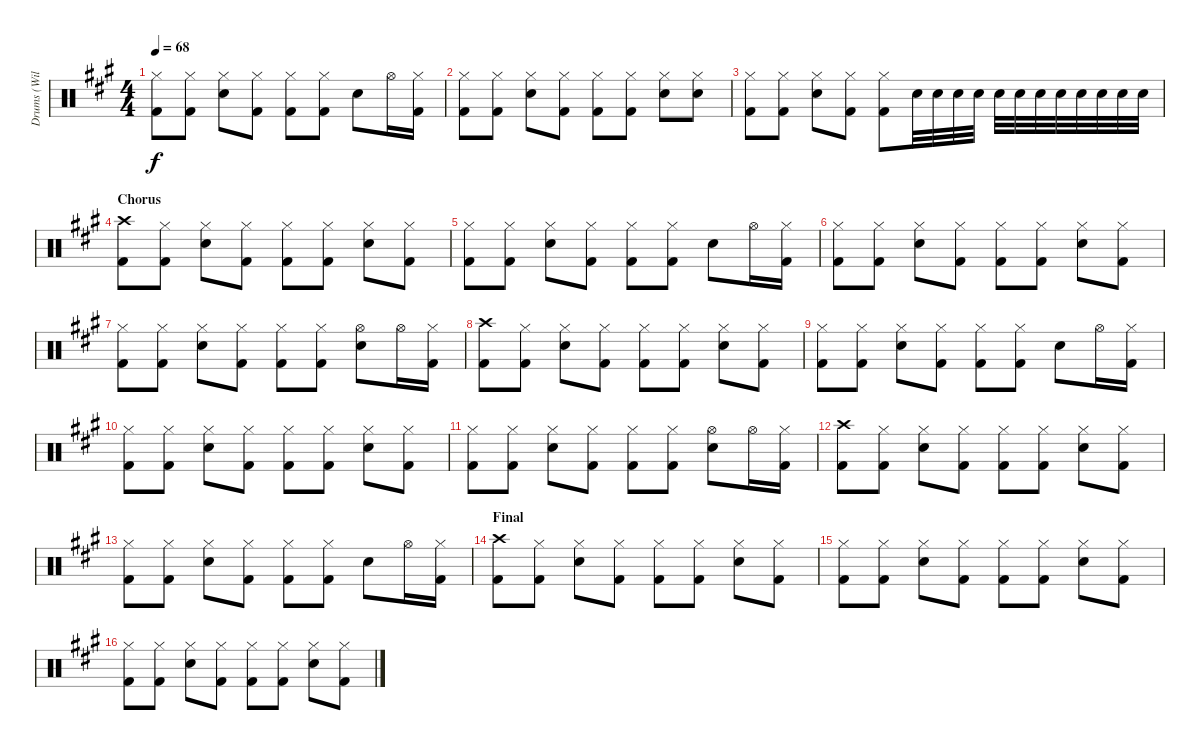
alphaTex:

\track ("Drums (Will Champion)" "Drums (Wil") {instrument percussion}
\staff {score}
\articulation defaults
\ts (4 4)
\tempo 68
\clef neutral
\ks a
("Kick (hit) 2" "Hi-Hat (closed)").8{dy f} ("Kick (hit) 2" "Hi-Hat (closed)").8 ("Snare (hit) 2" "Hi-Hat (closed)").8 ("Kick (hit) 2" "Hi-Hat (closed)").8 ("Kick (hit) 2" "Hi-Hat (closed)").8 ("Kick (hit) 2" "Hi-Hat (closed)").8 "Snare (hit) 2".8 "Hi-Hat (open)".16 ("Hi-Hat (closed)" "Kick (hit) 2").16 |
("Kick (hit) 2" "Hi-Hat (closed)").8 ("Kick (hit) 2" "Hi-Hat (closed)").8 ("Snare (hit) 2" "Hi-Hat (closed)").8 ("Kick (hit) 2" "Hi-Hat (closed)").8 ("Kick (hit) 2" "Hi-Hat (closed)").8 ("Kick (hit) 2" "Hi-Hat (closed)").8 ("Snare (hit) 2" "Hi-Hat (closed)").8 ("Snare (hit) 2" "Hi-Hat (closed)").8 |
("Kick (hit) 2" "Hi-Hat (closed)").8 ("Kick (hit) 2" "Hi-Hat (closed)").8 ("Snare (hit) 2" "Hi-Hat (closed)").8 ("Kick (hit) 2" "Hi-Hat (closed)").8 ("Kick (hit) 2" "Hi-Hat (closed)").8 "Snare (hit) 2".32 "Snare (hit) 2".32 "Snare (hit) 2".32 "Snare (hit) 2".32 "Snare (hit) 2".32 "Snare (hit) 2".32 "Snare (hit) 2".32 "Snare (hit) 2".32 "Snare (hit) 2".32 "Snare (hit) 2".32 "Snare (hit) 2".32 "Snare (hit) 2".32 |
\section ("" "Chorus")
("Kick (hit) 2" "Crash high (hit)").8 ("Kick (hit) 2" "Hi-Hat (closed)").8 ("Snare (hit) 2" "Hi-Hat (closed)").8 ("Kick (hit) 2" "Hi-Hat (closed)").8 ("Kick (hit) 2" "Hi-Hat (closed)").8 ("Kick (hit) 2" "Hi-Hat (closed)").8 ("Snare (hit) 2" "Hi-Hat (closed)").8 ("Kick (hit) 2" "Hi-Hat (closed)").8 |
("Kick (hit) 2" "Hi-Hat (closed)").8 ("Kick (hit) 2" "Hi-Hat (closed)").8 ("Snare (hit) 2" "Hi-Hat (closed)").8 ("Kick (hit) 2" "Hi-Hat (closed)").8 ("Kick (hit) 2" "Hi-Hat (closed)").8 ("Kick (hit) 2" "Hi-Hat (closed)").8 "Snare (hit) 2".8 "Hi-Hat (open)".16 ("Hi-Hat (closed)" "Kick (hit) 2").16 |
("Kick (hit) 2" "Hi-Hat (closed)").8 ("Kick (hit) 2" "Hi-Hat (closed)").8 ("Snare (hit) 2" "Hi-Hat (closed)").8 ("Kick (hit) 2" "Hi-Hat (closed)").8 ("Kick (hit) 2" "Hi-Hat (closed)").8 ("Kick (hit) 2" "Hi-Hat (closed)").8 ("Snare (hit) 2" "Hi-Hat (closed)").8 ("Kick (hit) 2" "Hi-Hat (closed)").8 |
("Kick (hit) 2" "Hi-Hat (closed)").8 ("Kick (hit) 2" "Hi-Hat (closed)").8 ("Snare (hit) 2" "Hi-Hat (closed)").8 ("Kick (hit) 2" "Hi-Hat (closed)").8 ("Kick (hit) 2" "Hi-Hat (closed)").8 ("Kick (hit) 2" "Hi-Hat (closed)").8 ("Hi-Hat (open)" "Snare (hit) 2").8 "Hi-Hat (open)".16 ("Hi-Hat (closed)" "Kick (hit) 2").16 |
("Kick (hit) 2" "Crash high (hit)").8 ("Kick (hit) 2" "Hi-Hat (closed)").8 ("Snare (hit) 2" "Hi-Hat (closed)").8 ("Kick (hit) 2" "Hi-Hat (closed)").8 ("Kick (hit) 2" "Hi-Hat (closed)").8 ("Kick (hit) 2" "Hi-Hat (closed)").8 ("Snare (hit) 2" "Hi-Hat (closed)").8 ("Kick (hit) 2" "Hi-Hat (closed)").8 |
("Kick (hit) 2" "Hi-Hat (closed)").8 ("Kick (hit) 2" "Hi-Hat (closed)").8 ("Snare (hit) 2" "Hi-Hat (closed)").8 ("Kick (hit) 2" "Hi-Hat (closed)").8 ("Kick (hit) 2" "Hi-Hat (closed)").8 ("Kick (hit) 2" "Hi-Hat (closed)").8 "Snare (hit) 2".8 "Hi-Hat (open)".16 ("Hi-Hat (closed)" "Kick (hit) 2").16 |
("Kick (hit) 2" "Hi-Hat (closed)").8 ("Kick (hit) 2" "Hi-Hat (closed)").8 ("Snare (hit) 2" "Hi-Hat (closed)").8 ("Kick (hit) 2" "Hi-Hat (closed)").8 ("Kick (hit) 2" "Hi-Hat (closed)").8 ("Kick (hit) 2" "Hi-Hat (closed)").8 ("Snare (hit) 2" "Hi-Hat (closed)").8 ("Kick (hit) 2" "Hi-Hat (closed)").8 |
("Kick (hit) 2" "Hi-Hat (closed)").8 ("Kick (hit) 2" "Hi-Hat (closed)").8 ("Snare (hit) 2" "Hi-Hat (closed)").8 ("Kick (hit) 2" "Hi-Hat (closed)").8 ("Kick (hit) 2" "Hi-Hat (closed)").8 ("Kick (hit) 2" "Hi-Hat (closed)").8 ("Hi-Hat (open)" "Snare (hit) 2").8 "Hi-Hat (open)".16 ("Hi-Hat (closed)" "Kick (hit) 2").16 |
("Kick (hit) 2" "Crash high (hit)").8 ("Kick (hit) 2" "Hi-Hat (closed)").8 ("Snare (hit) 2" "Hi-Hat (closed)").8 ("Kick (hit) 2" "Hi-Hat (closed)").8 ("Kick (hit) 2" "Hi-Hat (closed)").8 ("Kick (hit) 2" "Hi-Hat (closed)").8 ("Snare (hit) 2" "Hi-Hat (closed)").8 ("Kick (hit) 2" "Hi-Hat (closed)").8 |
("Kick (hit) 2" "Hi-Hat (closed)").8 ("Kick (hit) 2" "Hi-Hat (closed)").8 ("Snare (hit) 2" "Hi-Hat (closed)").8 ("Kick (hit) 2" "Hi-Hat (closed)").8 ("Kick (hit) 2" "Hi-Hat (closed)").8 ("Kick (hit) 2" "Hi-Hat (closed)").8 "Snare (hit) 2".8 "Hi-Hat (open)".16 ("Hi-Hat (closed)" "Kick (hit) 2").16 |
\section ("" "Final")
("Kick (hit) 2" "Crash high (hit)").8 ("Kick (hit) 2" "Hi-Hat (closed)").8 ("Snare (hit) 2" "Hi-Hat (closed)").8 ("Kick (hit) 2" "Hi-Hat (closed)").8 ("Kick (hit) 2" "Hi-Hat (closed)").8 ("Kick (hit) 2" "Hi-Hat (closed)").8 ("Snare (hit) 2" "Hi-Hat (closed)").8 ("Kick (hit) 2" "Hi-Hat (closed)").8 |
("Kick (hit) 2" "Hi-Hat (closed)").8 ("Kick (hit) 2" "Hi-Hat (closed)").8 ("Snare (hit) 2" "Hi-Hat (closed)").8 ("Kick (hit) 2" "Hi-Hat (closed)").8 ("Kick (hit) 2" "Hi-Hat (closed)").8 ("Kick (hit) 2" "Hi-Hat (closed)").8 ("Snare (hit) 2" "Hi-Hat (closed)").8 ("Kick (hit) 2" "Hi-Hat (closed)").8 |
("Kick (hit) 2" "Hi-Hat (closed)").8 ("Kick (hit) 2" "Hi-Hat (closed)").8 ("Snare (hit) 2" "Hi-Hat (closed)").8 ("Kick (hit) 2" "Hi-Hat (closed)").8 ("Kick (hit) 2" "Hi-Hat (closed)").8 ("Kick (hit) 2" "Hi-Hat (closed)").8 ("Snare (hit) 2" "Hi-Hat (closed)").8 ("Kick (hit) 2" "Hi-Hat (closed)").8
